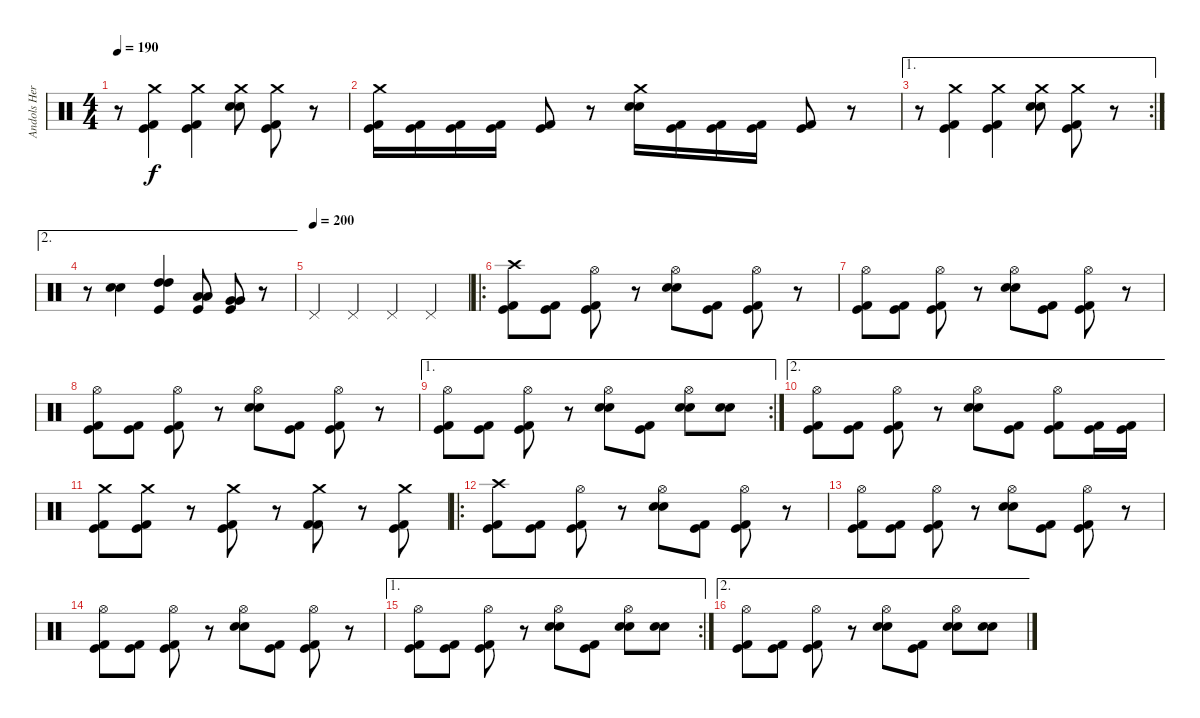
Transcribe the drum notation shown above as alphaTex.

\track ("Andols Herrick" "Andols Her") {instrument percussion}
\staff {score}
\articulation defaults
\ts (4 4)
\tempo 190
\clef neutral
\ks c
r.8{dy f} ("Crash medium (hit)" "Kick (hit) 2" "Kick (hit)").4 ("Crash medium (hit)" "Kick (hit) 2" "Kick (hit)").4 ("Crash medium (hit)" "Electric Snare (hit)" "Snare (hit) 2").8 ("Crash medium (hit)" "Kick (hit) 2" "Kick (hit)").8 r.8 |
("Crash medium (hit)" "Kick (hit) 2" "Kick (hit)").16 ("Kick (hit) 2" "Kick (hit)").16 ("Kick (hit) 2" "Kick (hit)").16 ("Kick (hit) 2" "Kick (hit)").16 ("Kick (hit) 2" "Kick (hit)").8 r.8 ("Crash medium (hit)" "Snare (hit) 2" "Snare (hit) 2").16 ("Kick (hit) 2" "Kick (hit)").16 ("Kick (hit) 2" "Kick (hit)").16 ("Kick (hit) 2" "Kick (hit)").16 ("Kick (hit) 2" "Kick (hit)").8 r.8 |
\ae 1
\rc 2
r.8 ("Crash medium (hit)" "Kick (hit) 2" "Kick (hit)").4 ("Crash medium (hit)" "Kick (hit) 2" "Kick (hit)").4 ("Crash medium (hit)" "Electric Snare (hit)" "Snare (hit) 2").8 ("Crash medium (hit)" "Kick (hit) 2" "Kick (hit)").8 r.8 |
\ae 2
r.8 ("Electric Snare (hit)" "Snare (hit) 2").4 ("High Tom (hit)" "High Tom (hit)" "Kick (hit)").4 ("Low Tom (hit)" "Low Tom (hit)" "Kick (hit)").8 ("Very Low Tom (hit)" "Very Low Tom (hit)" "Kick (hit)").8 r.8 |
\tempo (200)
"Pedal Hi-Hat (hit)".4 "Pedal Hi-Hat (hit)".4 "Pedal Hi-Hat (hit)".4 "Pedal Hi-Hat (hit)".4 |
\ro
("Crash high (hit)" "Kick (hit) 2" "Kick (hit)").8 ("Kick (hit) 2" "Kick (hit)").8 ("Hi-Hat (open)" "Kick (hit) 2" "Kick (hit)").8 r.8 ("Hi-Hat (open)" "Electric Snare (hit)" "Snare (hit) 2").8 ("Kick (hit) 2" "Kick (hit)").8 ("Hi-Hat (open)" "Kick (hit) 2" "Kick (hit)").8 r.8 |
("Hi-Hat (open)" "Kick (hit) 2" "Kick (hit)").8 ("Kick (hit) 2" "Kick (hit)").8 ("Hi-Hat (open)" "Kick (hit) 2" "Kick (hit)").8 r.8 ("Hi-Hat (open)" "Electric Snare (hit)" "Snare (hit) 2").8 ("Kick (hit) 2" "Kick (hit)").8 ("Hi-Hat (open)" "Kick (hit) 2" "Kick (hit)").8 r.8 |
("Hi-Hat (open)" "Kick (hit) 2" "Kick (hit)").8 ("Kick (hit) 2" "Kick (hit)").8 ("Hi-Hat (open)" "Kick (hit) 2" "Kick (hit)").8 r.8 ("Hi-Hat (open)" "Electric Snare (hit)" "Snare (hit) 2").8 ("Kick (hit) 2" "Kick (hit)").8 ("Hi-Hat (open)" "Kick (hit) 2" "Kick (hit)").8 r.8 |
\ae 1
\rc 2
("Hi-Hat (open)" "Kick (hit) 2" "Kick (hit)").8 ("Kick (hit) 2" "Kick (hit)").8 ("Hi-Hat (open)" "Kick (hit) 2" "Kick (hit)").8 r.8 ("Hi-Hat (open)" "Electric Snare (hit)" "Snare (hit) 2").8 ("Kick (hit) 2" "Kick (hit)").8 ("Hi-Hat (open)" "Electric Snare (hit)" "Snare (hit) 2").8 ("Electric Snare (hit)" "Snare (hit) 2").8 |
\ae 2
("Hi-Hat (open)" "Kick (hit) 2" "Kick (hit)").8 ("Kick (hit) 2" "Kick (hit)").8 ("Hi-Hat (open)" "Kick (hit) 2" "Kick (hit)").8 r.8 ("Hi-Hat (open)" "Electric Snare (hit)" "Snare (hit) 2").8 ("Kick (hit) 2" "Kick (hit)").8 ("Hi-Hat (open)" "Kick (hit) 2" "Kick (hit)").8 ("Kick (hit) 2" "Kick (hit)").16 ("Kick (hit) 2" "Kick (hit)").16 |
("Crash medium (hit)" "Kick (hit) 2" "Kick (hit)").8 ("Crash medium (hit)" "Kick (hit) 2" "Kick (hit)").8 r.8 ("Crash medium (hit)" "Kick (hit) 2" "Kick (hit)").8 r.8 ("Crash medium (hit)" "Kick (hit) 2" "Kick (hit) 2").8 r.8 ("Crash medium (hit)" "Kick (hit) 2" "Kick (hit)").8 |
\ro
("Crash high (hit)" "Kick (hit) 2" "Kick (hit)").8 ("Kick (hit) 2" "Kick (hit)").8 ("Hi-Hat (open)" "Kick (hit) 2" "Kick (hit)").8 r.8 ("Hi-Hat (open)" "Electric Snare (hit)" "Snare (hit) 2").8 ("Kick (hit) 2" "Kick (hit)").8 ("Hi-Hat (open)" "Kick (hit) 2" "Kick (hit)").8 r.8 |
("Hi-Hat (open)" "Kick (hit) 2" "Kick (hit)").8 ("Kick (hit) 2" "Kick (hit)").8 ("Hi-Hat (open)" "Kick (hit) 2" "Kick (hit)").8 r.8 ("Hi-Hat (open)" "Electric Snare (hit)" "Snare (hit) 2").8 ("Kick (hit) 2" "Kick (hit)").8 ("Hi-Hat (open)" "Kick (hit) 2" "Kick (hit)").8 r.8 |
("Hi-Hat (open)" "Kick (hit) 2" "Kick (hit)").8 ("Kick (hit) 2" "Kick (hit)").8 ("Hi-Hat (open)" "Kick (hit) 2" "Kick (hit)").8 r.8 ("Hi-Hat (open)" "Electric Snare (hit)" "Snare (hit) 2").8 ("Kick (hit) 2" "Kick (hit)").8 ("Hi-Hat (open)" "Kick (hit) 2" "Kick (hit)").8 r.8 |
\ae 1
\rc 2
("Hi-Hat (open)" "Kick (hit) 2" "Kick (hit)").8 ("Kick (hit) 2" "Kick (hit)").8 ("Hi-Hat (open)" "Kick (hit) 2" "Kick (hit)").8 r.8 ("Hi-Hat (open)" "Electric Snare (hit)" "Snare (hit) 2").8 ("Kick (hit) 2" "Kick (hit)").8 ("Hi-Hat (open)" "Electric Snare (hit)" "Snare (hit) 2").8 ("Electric Snare (hit)" "Snare (hit) 2").8 |
\ae 2
("Hi-Hat (open)" "Kick (hit) 2" "Kick (hit)").8 ("Kick (hit) 2" "Kick (hit)").8 ("Hi-Hat (open)" "Kick (hit) 2" "Kick (hit)").8 r.8 ("Hi-Hat (open)" "Electric Snare (hit)" "Snare (hit) 2").8 ("Kick (hit) 2" "Kick (hit)").8 ("Hi-Hat (open)" "Electric Snare (hit)" "Snare (hit) 2").8 ("Electric Snare (hit)" "Snare (hit) 2").8
